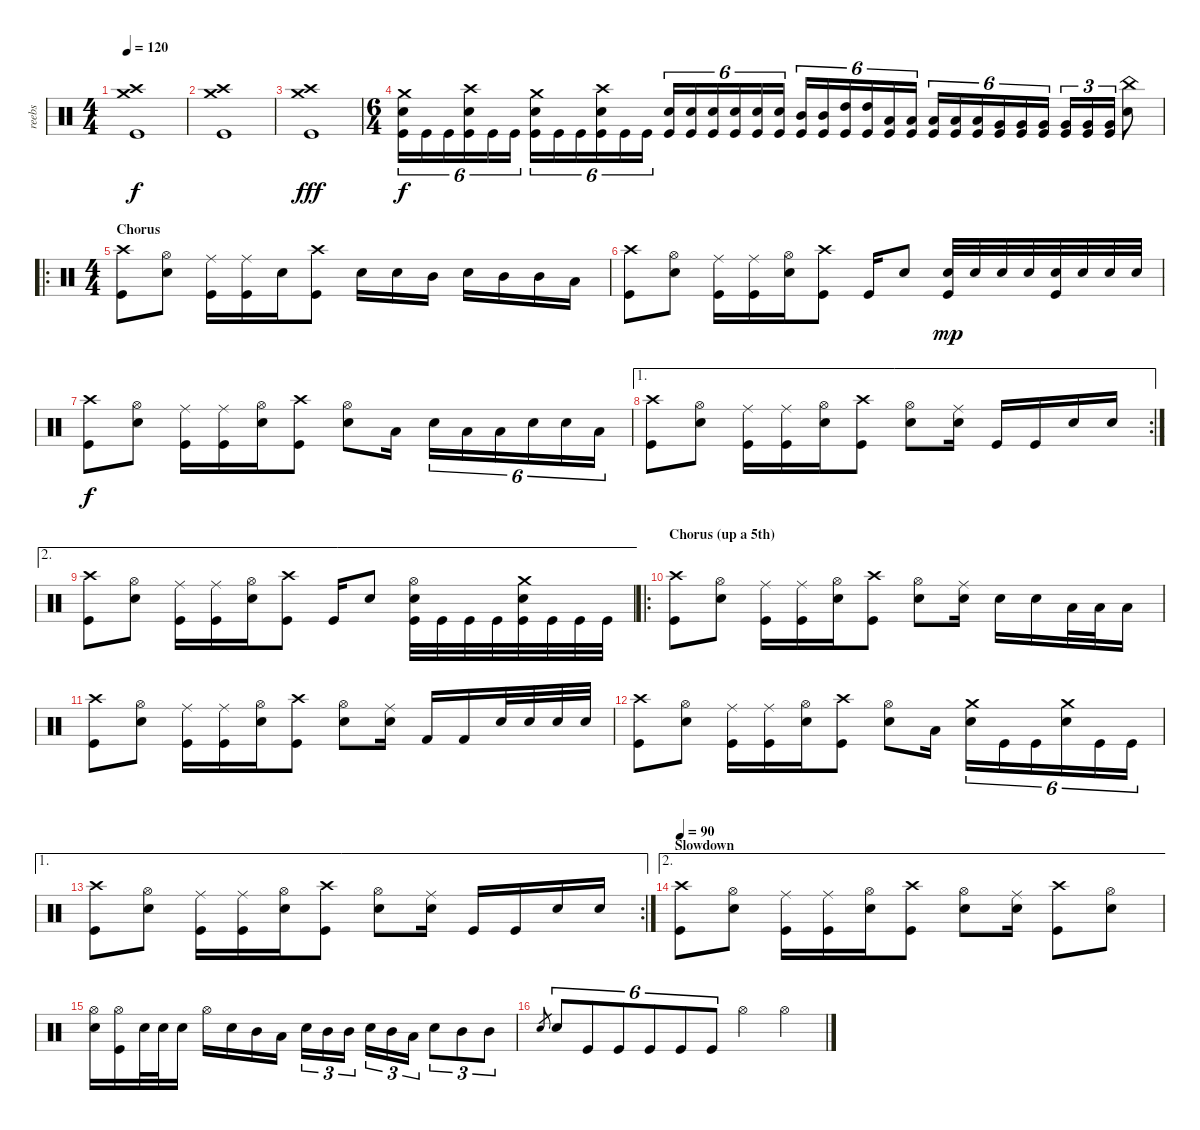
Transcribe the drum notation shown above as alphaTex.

\track ("reebs" "reebs") {instrument percussion}
\staff {score}
\articulation defaults
\ts (4 4)
\tempo 120
\clef neutral
\ks c
("Crash medium (hit)" "Crash high (hit)" "Kick (hit)").1{dy f} |
("Crash high (hit)" "Crash medium (hit)" "Kick (hit)").1 |
("Crash high (hit)" "Crash medium (hit)" "Kick (hit)").1{dy fff} |
\ts (6 4)
("Crash medium (hit)" "Electric Snare (hit)" "Kick (hit)").16{tu (6 4) dy f} "Kick (hit)".16{tu (6 4)} "Kick (hit)".16{tu (6 4)} ("Crash high (hit)" "Electric Snare (hit)" "Kick (hit)").16{tu (6 4)} "Kick (hit)".16{tu (6 4)} "Kick (hit)".16{tu (6 4)} ("Crash medium (hit)" "Electric Snare (hit)" "Kick (hit)").16{tu (6 4)} "Kick (hit)".16{tu (6 4)} "Kick (hit)".16{tu (6 4)} ("Crash high (hit)" "Electric Snare (hit)" "Kick (hit)").16{tu (6 4)} "Kick (hit)".16{tu (6 4)} "Kick (hit)".16{tu (6 4)} ("Electric Snare (hit)" "Kick (hit)").16{tu (6 4)} ("Electric Snare (hit)" "Kick (hit)").16{tu (6 4)} ("Electric Snare (hit)" "Kick (hit)").16{tu (6 4)} ("Electric Snare (hit)" "Kick (hit)").16{tu (6 4)} ("Electric Snare (hit)" "Kick (hit)").16{tu (6 4)} ("Electric Snare (hit)" "Kick (hit)").16{tu (6 4)} ("Mid Tom (hit)" "Kick (hit)").16{tu (6 4)} ("Mid Tom (hit)" "Kick (hit)").16{tu (6 4)} ("High Tom (hit)" "Kick (hit)").16{tu (6 4)} ("High Tom (hit)" "Kick (hit)").16{tu (6 4)} ("Low Tom (hit)" "Kick (hit)").16{tu (6 4)} ("Low Tom (hit)" "Kick (hit)").16{tu (6 4)} ("Low Tom (hit)" "Kick (hit)").16{tu (6 4)} ("Low Tom (hit)" "Kick (hit)").16{tu (6 4)} ("Low Tom (hit)" "Kick (hit)").16{tu (6 4)} ("Very Low Tom (hit)" "Kick (hit)").16{tu (6 4)} ("Very Low Tom (hit)" "Kick (hit)").16{tu (6 4)} ("Very Low Tom (hit)" "Kick (hit)").16{tu (6 4)} ("Very Low Tom (hit)" "Kick (hit)").16{tu (3 2)} ("Very Low Tom (hit)" "Kick (hit)").16{tu (3 2)} ("Very Low Tom (hit)" "Kick (hit)").16{tu (3 2)} ("China (hit)" "Electric Snare (hit)").8 |
\ro
\ts (4 4)
\section ("" "Chorus")
("Crash high (hit)" "Kick (hit)").8 ("Hi-Hat (open)" "Electric Snare (hit)").8 ("Ride (middle)" "Kick (hit)").16 ("Ride (middle)" "Kick (hit)").16 "Electric Snare (hit)".16 ("Crash high (hit)" "Kick (hit)").8 "Electric Snare (hit)".16 "Electric Snare (hit)".16 "Mid Tom (hit)".16 "Electric Snare (hit)".16 "Mid Tom (hit)".16 "Mid Tom (hit)".16 "Low Tom (hit)".16 |
("Crash high (hit)" "Kick (hit)").8 ("Hi-Hat (open)" "Electric Snare (hit)").8 ("Ride (middle)" "Kick (hit)").16 ("Ride (middle)" "Kick (hit)").16 ("Hi-Hat (open)" "Electric Snare (hit)").16 ("Crash high (hit)" "Kick (hit)").8 "Kick (hit)".16 "Electric Snare (hit)".8 ("Electric Snare (hit)" "Kick (hit)").32{dy mp} "Electric Snare (hit)".32 "Electric Snare (hit)".32 "Electric Snare (hit)".32 ("Electric Snare (hit)" "Kick (hit)").32 "Electric Snare (hit)".32 "Electric Snare (hit)".32 "Electric Snare (hit)".32 |
("Crash high (hit)" "Kick (hit)").8{dy f} ("Hi-Hat (open)" "Electric Snare (hit)").8 ("Ride (middle)" "Kick (hit)").16 ("Ride (middle)" "Kick (hit)").16 ("Hi-Hat (open)" "Electric Snare (hit)").16 ("Crash high (hit)" "Kick (hit)").8 ("Hi-Hat (open)" "Electric Snare (hit)").8 "Low Tom (hit)".16 "Electric Snare (hit)".16{tu (6 4)} "Low Tom (hit)".16{tu (6 4)} "Low Tom (hit)".16{tu (6 4)} "Electric Snare (hit)".16{tu (6 4)} "Electric Snare (hit)".16{tu (6 4)} "Low Tom (hit)".16{tu (6 4)} |
\ae 1
\rc 2
("Crash high (hit)" "Kick (hit)").8 ("Hi-Hat (open)" "Electric Snare (hit)").8 ("Ride (middle)" "Kick (hit)").16 ("Ride (middle)" "Kick (hit)").16 ("Hi-Hat (open)" "Electric Snare (hit)").16 ("Crash high (hit)" "Kick (hit)").8 ("Hi-Hat (open)" "Electric Snare (hit)").8 ("Ride (middle)" "Electric Snare (hit)").16 "Kick (hit)".16 "Kick (hit)".16 "Electric Snare (hit)".16 "Electric Snare (hit)".16 |
\ae 2
("Crash high (hit)" "Kick (hit)").8 ("Hi-Hat (open)" "Electric Snare (hit)").8 ("Ride (middle)" "Kick (hit)").16 ("Ride (middle)" "Kick (hit)").16 ("Hi-Hat (open)" "Electric Snare (hit)").16 ("Crash high (hit)" "Kick (hit)").8 "Kick (hit)".16 "Electric Snare (hit)".8 ("Hi-Hat (open)" "Electric Snare (hit)" "Kick (hit)").32 "Kick (hit)".32 "Kick (hit)".32 "Kick (hit)".32 ("Crash medium (hit)" "Electric Snare (hit)" "Kick (hit)").32 "Kick (hit)".32 "Kick (hit)".32 "Kick (hit)".32 |
\ro
\section ("" "Chorus (up a 5th)")
("Crash high (hit)" "Kick (hit)").8 ("Hi-Hat (open)" "Electric Snare (hit)").8 ("Ride (middle)" "Kick (hit)").16 ("Ride (middle)" "Kick (hit)").16 ("Hi-Hat (open)" "Electric Snare (hit)").16 ("Crash high (hit)" "Kick (hit)").8 ("Hi-Hat (open)" "Electric Snare (hit)").8 ("Ride (middle)" "Electric Snare (hit)").16 "Electric Snare (hit)".16 "Electric Snare (hit)".16 "Low Tom (hit)".32 "Low Tom (hit)".32 "Low Floor Tom (hit)".16 |
("Crash high (hit)" "Kick (hit)").8 ("Hi-Hat (open)" "Electric Snare (hit)").8 ("Ride (middle)" "Kick (hit)").16 ("Ride (middle)" "Kick (hit)").16 ("Hi-Hat (open)" "Electric Snare (hit)").16 ("Crash high (hit)" "Kick (hit)").8 ("Hi-Hat (open)" "Electric Snare (hit)").8 ("Ride (middle)" "Electric Snare (hit)").16 "Kick (hit) 2".16 "Kick (hit) 2".16 "Electric Snare (hit)".32 "Electric Snare (hit)".32 "Electric Snare (hit)".32 "Electric Snare (hit)".32 |
("Crash high (hit)" "Kick (hit)").8 ("Hi-Hat (open)" "Electric Snare (hit)").8 ("Ride (middle)" "Kick (hit)").16 ("Ride (middle)" "Kick (hit)").16 ("Hi-Hat (open)" "Electric Snare (hit)").16 ("Crash high (hit)" "Kick (hit)").8 ("Hi-Hat (open)" "Electric Snare (hit)").8 "Low Tom (hit)".16 ("Crash medium (hit)" "Electric Snare (hit)").16{tu (6 4)} "Kick (hit)".16{tu (6 4)} "Kick (hit)".16{tu (6 4)} ("Crash medium (hit)" "Electric Snare (hit)").16{tu (6 4)} "Kick (hit)".16{tu (6 4)} "Kick (hit)".16{tu (6 4)} |
\ae 1
\rc 2
("Crash high (hit)" "Kick (hit)").8 ("Hi-Hat (open)" "Electric Snare (hit)").8 ("Ride (middle)" "Kick (hit)").16 ("Ride (middle)" "Kick (hit)").16 ("Hi-Hat (open)" "Electric Snare (hit)").16 ("Crash high (hit)" "Kick (hit)").8 ("Hi-Hat (open)" "Electric Snare (hit)").8 ("Ride (middle)" "Electric Snare (hit)").16 "Kick (hit)".16 "Kick (hit)".16 "Electric Snare (hit)".16 "Electric Snare (hit)".16 |
\ae 2
\section ("" "Slowdown")
\tempo 90
("Crash high (hit)" "Kick (hit)").8 ("Hi-Hat (open)" "Electric Snare (hit)").8 ("Ride (middle)" "Kick (hit)").16 ("Ride (middle)" "Kick (hit)").16 ("Hi-Hat (open)" "Electric Snare (hit)").16 ("Crash high (hit)" "Kick (hit)").8 ("Hi-Hat (open)" "Electric Snare (hit)").8 ("Ride (middle)" "Electric Snare (hit)").16 ("Crash high (hit)" "Kick (hit)").8 ("Hi-Hat (open)" "Electric Snare (hit)").8 |
("Hi-Hat (open)" "Electric Snare (hit)").16 ("Hi-Hat (open)" "Kick (hit)").16 "Electric Snare (hit)".32 "Electric Snare (hit)".32 "Electric Snare (hit)".16 "Hi-Hat (open)".16 "Electric Snare (hit)".16 "Mid Tom (hit)".16 "Low Tom (hit)".16 "Electric Snare (hit)".16{tu (3 2)} "Mid Tom (hit)".16{tu (3 2)} "Mid Tom (hit)".16{tu (3 2)} "Electric Snare (hit)".16{tu (3 2)} "Mid Tom (hit)".16{tu (3 2)} "Low Tom (hit)".16{tu (3 2)} "Electric Snare (hit)".8{tu (3 2)} "Mid Tom (hit)".8{tu (3 2)} "Mid Tom (hit)".8{tu (3 2)} |
"Electric Snare (hit)".8{gr} "Electric Snare (hit)".8{tu (6 4)} "Kick (hit)".8{tu (6 4)} "Kick (hit)".8{tu (6 4)} "Kick (hit)".8{tu (6 4)} "Kick (hit)".8{tu (6 4)} "Kick (hit)".8{tu (6 4)} "Hi-Hat (open)".4 "Hi-Hat (open)".4
